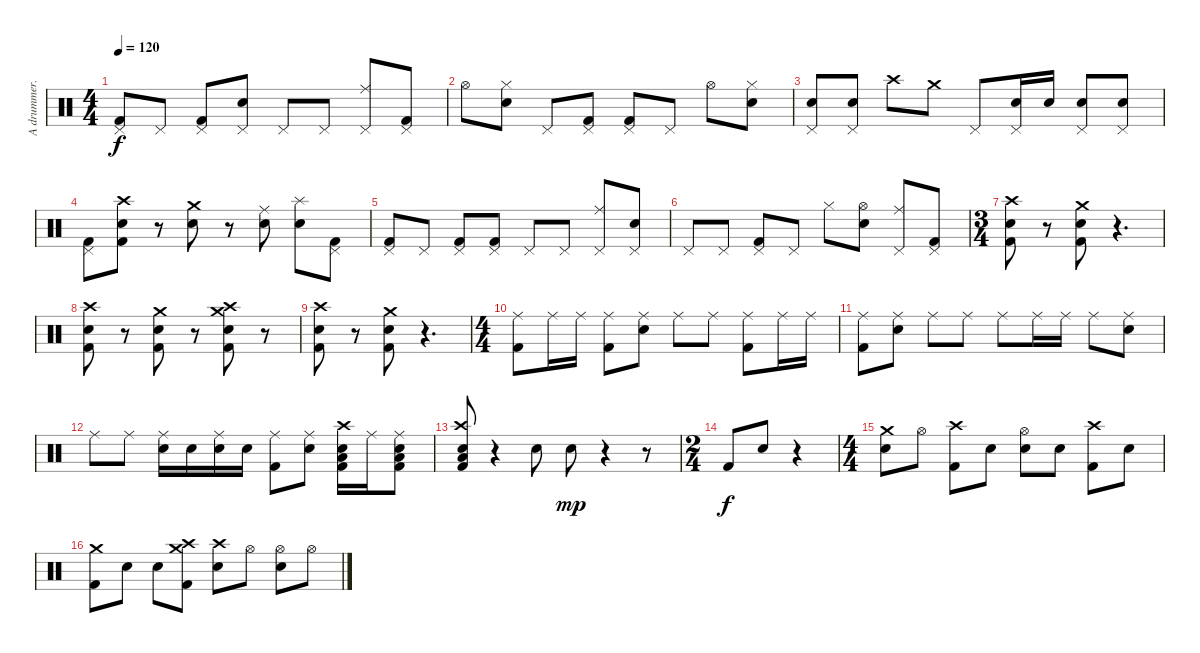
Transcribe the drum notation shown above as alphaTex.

\track ("A drummer...." "A drummer.") {instrument percussion}
\staff {score}
\articulation defaults
\ts (4 4)
\tempo 120
\clef neutral
\ks c
("Pedal Hi-Hat (hit)" "Kick (hit) 2").8{dy f} "Pedal Hi-Hat (hit)".8 ("Pedal Hi-Hat (hit)" "Kick (hit) 2").8 ("Pedal Hi-Hat (hit)" "Snare (hit) 2").8 "Pedal Hi-Hat (hit)".8 "Pedal Hi-Hat (hit)".8 ("Pedal Hi-Hat (hit)" "Ride (middle)").8 ("Pedal Hi-Hat (hit)" "Kick (hit) 2").8 |
"Hi-Hat (open)".8 ("Hi-Hat (closed)" "Snare (hit) 2").8 "Pedal Hi-Hat (hit)".8 ("Pedal Hi-Hat (hit)" "Kick (hit) 2").8 ("Pedal Hi-Hat (hit)" "Kick (hit) 2").8 "Pedal Hi-Hat (hit)".8 "Hi-Hat (open)".8 ("Hi-Hat (closed)" "Snare (hit) 2").8 |
("Pedal Hi-Hat (hit)" "Snare (hit) 2").8 ("Pedal Hi-Hat (hit)" "Snare (hit) 2").8 "Crash high (hit)".8 "Crash medium (hit)".8 "Pedal Hi-Hat (hit)".8 ("Pedal Hi-Hat (hit)" "Snare (hit) 2").16 "Snare (hit) 2".16 ("Pedal Hi-Hat (hit)" "Snare (hit) 2").8 ("Pedal Hi-Hat (hit)" "Snare (hit) 2").8 |
("Pedal Hi-Hat (hit)" "Kick (hit) 2").8 ("Crash high (hit)" "Snare (hit) 2" "Kick (hit) 2").8 r.8 ("Crash medium (hit)" "Snare (hit) 2").8 r.8 ("Ride (middle)" "Snare (hit) 2").8 ("Splash (hit)" "Snare (hit) 2").8 ("Pedal Hi-Hat (hit)" "Kick (hit) 2").8 |
("Pedal Hi-Hat (hit)" "Kick (hit) 2").8 "Pedal Hi-Hat (hit)".8 ("Pedal Hi-Hat (hit)" "Kick (hit) 2").8 ("Pedal Hi-Hat (hit)" "Kick (hit) 2").8 "Pedal Hi-Hat (hit)".8 "Pedal Hi-Hat (hit)".8 ("Pedal Hi-Hat (hit)" "Ride (middle)").8 ("Pedal Hi-Hat (hit)" "Snare (hit) 2").8 |
"Pedal Hi-Hat (hit)".8 "Pedal Hi-Hat (hit)".8 ("Pedal Hi-Hat (hit)" "Kick (hit) 2").8 "Pedal Hi-Hat (hit)".8 "Hi-Hat (closed)".8 ("Hi-Hat (open)" "Snare (hit) 2").8 ("Pedal Hi-Hat (hit)" "Ride (middle)").8 ("Pedal Hi-Hat (hit)" "Kick (hit) 2").8 |
\ts (3 4)
("Crash high (hit)" "Snare (hit) 2" "Kick (hit) 2").8 r.8 ("Crash medium (hit)" "Snare (hit) 2" "Kick (hit) 2").8 r.4{d} |
("Crash high (hit)" "Snare (hit) 2" "Kick (hit) 2").8 r.8 ("Crash medium (hit)" "Snare (hit) 2" "Kick (hit) 2").8 r.8 ("Crash high (hit)" "Crash medium (hit)" "Snare (hit) 2" "Kick (hit) 2").8 r.8 |
("Crash high (hit)" "Snare (hit) 2" "Kick (hit) 2").8 r.8 ("Crash medium (hit)" "Snare (hit) 2" "Kick (hit) 2").8 r.4{d} |
\ts (4 4)
("Ride (middle)" "Kick (hit) 2").8 "Ride (middle)".16 "Ride (middle)".16 ("Ride (middle)" "Kick (hit) 2").8 ("Ride (middle)" "Snare (hit) 2").8 "Ride (middle)".8 "Ride (middle)".8 ("Ride (middle)" "Kick (hit) 2").8 "Ride (middle)".16 "Ride (middle)".16 |
("Ride (middle)" "Kick (hit) 2").8 ("Ride (middle)" "Snare (hit) 2").8 "Ride (middle)".8 "Ride (middle)".8 "Ride (middle)".8 "Ride (middle)".16 "Ride (middle)".16 "Ride (middle)".8 ("Ride (middle)" "Snare (hit) 2").8 |
"Ride (middle)".8 "Ride (middle)".8 ("Ride (middle)" "Snare (hit) 2").16 "Snare (hit) 2".16 ("Ride (middle)" "Snare (hit) 2").16 "Snare (hit) 2".16 ("Ride (middle)" "Kick (hit) 2").8 ("Ride (middle)" "Snare (hit) 2").8 ("Crash high (hit)" "Snare (hit) 2" "Kick (hit) 2" "Low Tom (hit)").16 "Ride (middle)".16 ("Ride (middle)" "Snare (hit) 2" "Kick (hit) 2" "Low Tom (hit)").8 |
("Crash high (hit)" "Snare (hit) 2" "Kick (hit) 2" "Low Tom (hit)").8 r.4 "Snare (hit) 2".8 "Snare (hit) 2".8{dy mp} r.4 r.8 |
\ts (2 4)
"Kick (hit) 2".8{dy f} "Snare (hit) 2".8 r.4 |
\ts (4 4)
("Crash medium (hit)" "Snare (hit) 2").8 "Hi-Hat (open)".8 ("Crash high (hit)" "Kick (hit) 2").8 "Snare (hit) 2".8 ("Hi-Hat (open)" "Snare (hit) 2").8 "Snare (hit) 2".8 ("Crash high (hit)" "Kick (hit) 2").8 "Snare (hit) 2".8 |
("Crash medium (hit)" "Kick (hit) 2").8 "Snare (hit) 2".8 "Snare (hit) 2".8 ("Crash medium (hit)" "Crash high (hit)" "Kick (hit) 2").8 ("Crash high (hit)" "Snare (hit) 2").8 "Hi-Hat (open)".8 ("Hi-Hat (open)" "Snare (hit) 2").8 "Hi-Hat (open)".8
